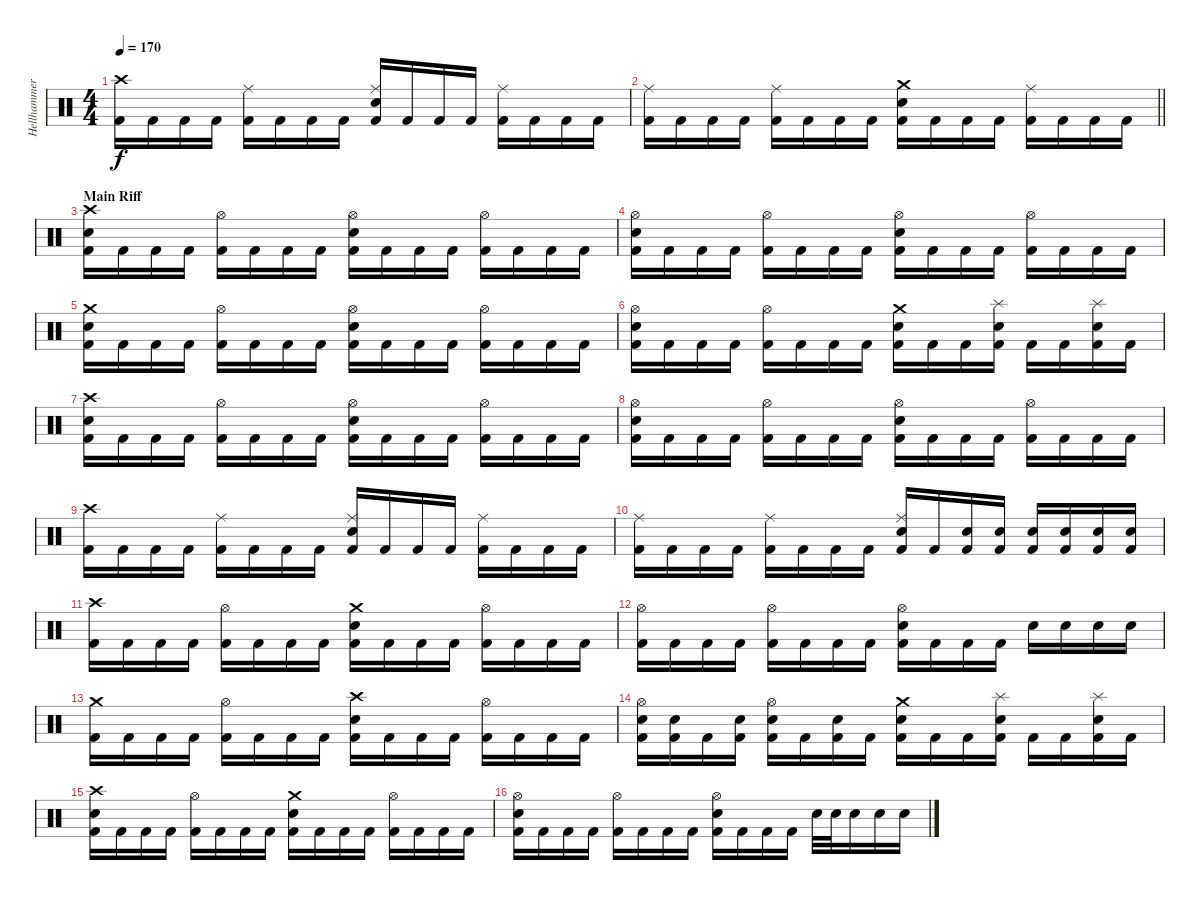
\track ("Hellhammer" "Hellhammer") {instrument percussion}
\staff {score}
\articulation defaults
\ts (4 4)
\tempo 170
\clef neutral
\ks c
("Crash high (hit)" "Kick (hit) 2").16{dy f} "Kick (hit) 2".16 "Kick (hit) 2".16 "Kick (hit) 2".16 ("Ride (middle)" "Kick (hit) 2").16 "Kick (hit) 2".16 "Kick (hit) 2".16 "Kick (hit) 2".16 ("Ride (middle)" "Snare (hit) 2" "Kick (hit) 2").16 "Kick (hit) 2".16 "Kick (hit) 2".16 "Kick (hit) 2".16 ("Ride (middle)" "Kick (hit) 2").16 "Kick (hit) 2".16 "Kick (hit) 2".16 "Kick (hit) 2".16 |
\barLineRight lightlight
("Ride (middle)" "Kick (hit) 2").16 "Kick (hit) 2".16 "Kick (hit) 2".16 "Kick (hit) 2".16 ("Ride (middle)" "Kick (hit) 2").16 "Kick (hit) 2".16 "Kick (hit) 2".16 "Kick (hit) 2".16 ("Crash medium (hit)" "Snare (hit) 2" "Kick (hit) 2").16 "Kick (hit) 2".16 "Kick (hit) 2".16 "Kick (hit) 2".16 ("Ride (middle)" "Kick (hit) 2").16 "Kick (hit) 2".16 "Kick (hit) 2".16 "Kick (hit) 2".16 |
\section ("" "Main Riff")
("Crash high (hit)" "Snare (hit) 2" "Kick (hit) 2").16 "Kick (hit) 2".16 "Kick (hit) 2".16 "Kick (hit) 2".16 ("Hi-Hat (open)" "Kick (hit) 2").16 "Kick (hit) 2".16 "Kick (hit) 2".16 "Kick (hit) 2".16 ("Hi-Hat (open)" "Snare (hit) 2" "Kick (hit) 2").16 "Kick (hit) 2".16 "Kick (hit) 2".16 "Kick (hit) 2".16 ("Hi-Hat (open)" "Kick (hit) 2").16 "Kick (hit) 2".16 "Kick (hit) 2".16 "Kick (hit) 2".16 |
("Hi-Hat (open)" "Snare (hit) 2" "Kick (hit) 2").16 "Kick (hit) 2".16 "Kick (hit) 2".16 "Kick (hit) 2".16 ("Hi-Hat (open)" "Kick (hit) 2").16 "Kick (hit) 2".16 "Kick (hit) 2".16 "Kick (hit) 2".16 ("Hi-Hat (open)" "Snare (hit) 2" "Kick (hit) 2").16 "Kick (hit) 2".16 "Kick (hit) 2".16 "Kick (hit) 2".16 ("Hi-Hat (open)" "Kick (hit) 2").16 "Kick (hit) 2".16 "Kick (hit) 2".16 "Kick (hit) 2".16 |
("Crash medium (hit)" "Snare (hit) 2" "Kick (hit) 2").16 "Kick (hit) 2".16 "Kick (hit) 2".16 "Kick (hit) 2".16 ("Hi-Hat (open)" "Kick (hit) 2").16 "Kick (hit) 2".16 "Kick (hit) 2".16 "Kick (hit) 2".16 ("Hi-Hat (open)" "Snare (hit) 2" "Kick (hit) 2").16 "Kick (hit) 2".16 "Kick (hit) 2".16 "Kick (hit) 2".16 ("Hi-Hat (open)" "Kick (hit) 2").16 "Kick (hit) 2".16 "Kick (hit) 2".16 "Kick (hit) 2".16 |
("Hi-Hat (open)" "Snare (hit) 2" "Kick (hit) 2").16 "Kick (hit) 2".16 "Kick (hit) 2".16 "Kick (hit) 2".16 ("Hi-Hat (open)" "Kick (hit) 2").16 "Kick (hit) 2".16 "Kick (hit) 2".16 "Kick (hit) 2".16 ("Crash medium (hit)" "Snare (hit) 2" "Kick (hit) 2").16 "Kick (hit) 2".16 "Kick (hit) 2".16 ("Splash (hit)" "Snare (hit) 2" "Kick (hit) 2").16 "Kick (hit) 2".16 "Kick (hit) 2".16 ("Splash (hit)" "Snare (hit) 2" "Kick (hit) 2").16 "Kick (hit) 2".16 |
("Crash high (hit)" "Snare (hit) 2" "Kick (hit) 2").16 "Kick (hit) 2".16 "Kick (hit) 2".16 "Kick (hit) 2".16 ("Hi-Hat (open)" "Kick (hit) 2").16 "Kick (hit) 2".16 "Kick (hit) 2".16 "Kick (hit) 2".16 ("Hi-Hat (open)" "Snare (hit) 2" "Kick (hit) 2").16 "Kick (hit) 2".16 "Kick (hit) 2".16 "Kick (hit) 2".16 ("Hi-Hat (open)" "Kick (hit) 2").16 "Kick (hit) 2".16 "Kick (hit) 2".16 "Kick (hit) 2".16 |
("Hi-Hat (open)" "Snare (hit) 2" "Kick (hit) 2").16 "Kick (hit) 2".16 "Kick (hit) 2".16 "Kick (hit) 2".16 ("Hi-Hat (open)" "Kick (hit) 2").16 "Kick (hit) 2".16 "Kick (hit) 2".16 "Kick (hit) 2".16 ("Hi-Hat (open)" "Snare (hit) 2" "Kick (hit) 2").16 "Kick (hit) 2".16 "Kick (hit) 2".16 "Kick (hit) 2".16 ("Hi-Hat (open)" "Kick (hit) 2").16 "Kick (hit) 2".16 "Kick (hit) 2".16 "Kick (hit) 2".16 |
("Crash high (hit)" "Kick (hit) 2").16 "Kick (hit) 2".16 "Kick (hit) 2".16 "Kick (hit) 2".16 ("Ride (middle)" "Kick (hit) 2").16 "Kick (hit) 2".16 "Kick (hit) 2".16 "Kick (hit) 2".16 ("Ride (middle)" "Snare (hit) 2" "Kick (hit) 2").16 "Kick (hit) 2".16 "Kick (hit) 2".16 "Kick (hit) 2".16 ("Ride (middle)" "Kick (hit) 2").16 "Kick (hit) 2".16 "Kick (hit) 2".16 "Kick (hit) 2".16 |
("Ride (middle)" "Kick (hit) 2").16 "Kick (hit) 2".16 "Kick (hit) 2".16 "Kick (hit) 2".16 ("Ride (middle)" "Kick (hit) 2").16 "Kick (hit) 2".16 "Kick (hit) 2".16 "Kick (hit) 2".16 ("Ride (middle)" "Snare (hit) 2" "Kick (hit) 2").16 "Kick (hit) 2".16 ("Snare (hit) 2" "Kick (hit) 2").16 ("Snare (hit) 2" "Kick (hit) 2").16 ("Snare (hit) 2" "Kick (hit) 2").16 ("Snare (hit) 2" "Kick (hit) 2").16 ("Snare (hit) 2" "Kick (hit) 2").16 ("Snare (hit) 2" "Kick (hit) 2").16 |
("Crash high (hit)" "Kick (hit) 2").16 "Kick (hit) 2".16 "Kick (hit) 2".16 "Kick (hit) 2".16 ("Hi-Hat (open)" "Kick (hit) 2").16 "Kick (hit) 2".16 "Kick (hit) 2".16 "Kick (hit) 2".16 ("Crash medium (hit)" "Snare (hit) 2" "Kick (hit) 2").16 "Kick (hit) 2".16 "Kick (hit) 2".16 "Kick (hit) 2".16 ("Hi-Hat (open)" "Kick (hit) 2").16 "Kick (hit) 2".16 "Kick (hit) 2".16 "Kick (hit) 2".16 |
("Hi-Hat (open)" "Kick (hit) 2").16 "Kick (hit) 2".16 "Kick (hit) 2".16 "Kick (hit) 2".16 ("Hi-Hat (open)" "Kick (hit) 2").16 "Kick (hit) 2".16 "Kick (hit) 2".16 "Kick (hit) 2".16 ("Hi-Hat (open)" "Snare (hit) 2" "Kick (hit) 2").16 "Kick (hit) 2".16 "Kick (hit) 2".16 "Kick (hit) 2".16 "Snare (hit) 2".16 "Snare (hit) 2".16 "Snare (hit) 2".16 "Snare (hit) 2".16 |
("Crash medium (hit)" "Kick (hit) 2").16 "Kick (hit) 2".16 "Kick (hit) 2".16 "Kick (hit) 2".16 ("Hi-Hat (open)" "Kick (hit) 2").16 "Kick (hit) 2".16 "Kick (hit) 2".16 "Kick (hit) 2".16 ("Crash high (hit)" "Snare (hit) 2" "Kick (hit) 2").16 "Kick (hit) 2".16 "Kick (hit) 2".16 "Kick (hit) 2".16 ("Hi-Hat (open)" "Kick (hit) 2").16 "Kick (hit) 2".16 "Kick (hit) 2".16 "Kick (hit) 2".16 |
("Hi-Hat (open)" "Snare (hit) 2" "Kick (hit) 2").16 ("Snare (hit) 2" "Kick (hit) 2").16 "Kick (hit) 2".16 ("Snare (hit) 2" "Kick (hit) 2").16 ("Hi-Hat (open)" "Snare (hit) 2" "Kick (hit) 2").16 "Kick (hit) 2".16 ("Snare (hit) 2" "Kick (hit) 2").16 "Kick (hit) 2".16 ("Crash medium (hit)" "Snare (hit) 2" "Kick (hit) 2").16 "Kick (hit) 2".16 "Kick (hit) 2".16 ("Splash (hit)" "Snare (hit) 2" "Kick (hit) 2").16 "Kick (hit) 2".16 "Kick (hit) 2".16 ("Splash (hit)" "Snare (hit) 2" "Kick (hit) 2").16 "Kick (hit) 2".16 |
("Crash high (hit)" "Snare (hit) 2" "Kick (hit) 2").16 "Kick (hit) 2".16 "Kick (hit) 2".16 "Kick (hit) 2".16 ("Hi-Hat (open)" "Kick (hit) 2").16 "Kick (hit) 2".16 "Kick (hit) 2".16 "Kick (hit) 2".16 ("Crash medium (hit)" "Snare (hit) 2" "Kick (hit) 2").16 "Kick (hit) 2".16 "Kick (hit) 2".16 "Kick (hit) 2".16 ("Hi-Hat (open)" "Kick (hit) 2").16 "Kick (hit) 2".16 "Kick (hit) 2".16 "Kick (hit) 2".16 |
("Hi-Hat (open)" "Snare (hit) 2" "Kick (hit) 2").16 "Kick (hit) 2".16 "Kick (hit) 2".16 "Kick (hit) 2".16 ("Hi-Hat (open)" "Kick (hit) 2").16 "Kick (hit) 2".16 "Kick (hit) 2".16 "Kick (hit) 2".16 ("Hi-Hat (open)" "Snare (hit) 2" "Kick (hit) 2").16 "Kick (hit) 2".16 "Kick (hit) 2".16 "Kick (hit) 2".16 "Snare (hit) 2".32 "Snare (hit) 2".32 "Snare (hit) 2".16 "Snare (hit) 2".16 "Snare (hit) 2".16
